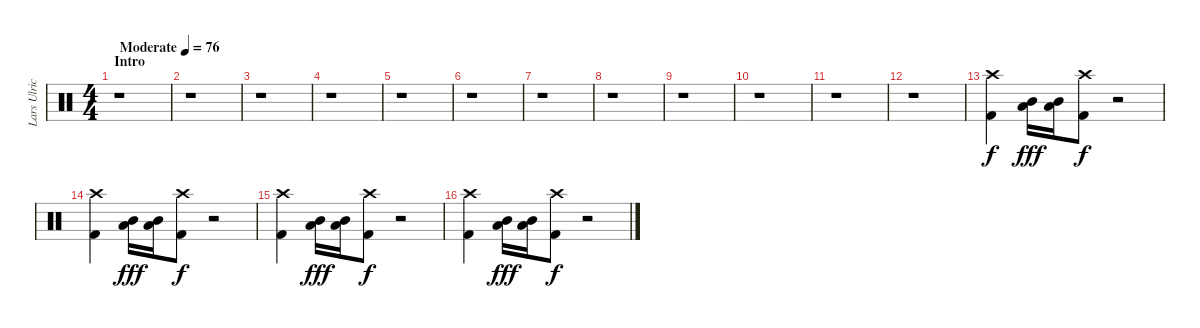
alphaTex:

\track ("Lars Ulrich - Drums" "Lars Ulric") {instrument percussion}
\staff {score}
\articulation defaults
\ts (4 4)
\section ("" "Intro")
\tempo (76 "Moderate")
\clef neutral
\ks c
r.1{dy f} |
r.1 |
r.1 |
r.1 |
r.1 |
r.1 |
r.1 |
r.1 |
r.1 |
r.1 |
r.1 |
r.1 |
("Crash high (hit)" "Kick (hit) 2").4 ("Mid Tom (hit)" "Low Tom (hit)").16{dy fff} ("Mid Tom (hit)" "Low Tom (hit)").16 ("Crash high (hit)" "Kick (hit) 2").8{dy f} r.2 |
("Crash high (hit)" "Kick (hit) 2").4 ("Mid Tom (hit)" "Low Tom (hit)").16{dy fff} ("Mid Tom (hit)" "Low Tom (hit)").16 ("Crash high (hit)" "Kick (hit) 2").8{dy f} r.2 |
("Crash high (hit)" "Kick (hit) 2").4 ("Mid Tom (hit)" "Low Tom (hit)").16{dy fff} ("Mid Tom (hit)" "Low Tom (hit)").16 ("Crash high (hit)" "Kick (hit) 2").8{dy f} r.2 |
("Crash high (hit)" "Kick (hit) 2").4 ("Mid Tom (hit)" "Low Tom (hit)").16{dy fff} ("Mid Tom (hit)" "Low Tom (hit)").16 ("Crash high (hit)" "Kick (hit) 2").8{dy f} r.2
